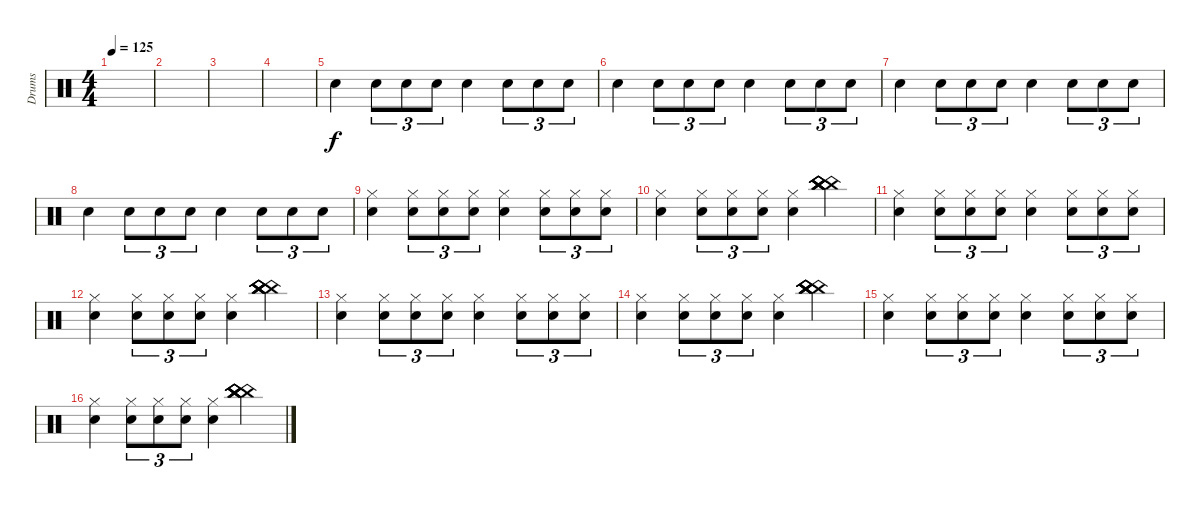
\track ("Drums" "Drums") {instrument percussion}
\staff {score}
\articulation defaults
\ts (4 4)
\tempo 125
\clef neutral
\ks c
|
|
|
|
"Electric Snare (hit)".4{volume 11} "Electric Snare (hit)".8{tu (3 2)} "Electric Snare (hit)".8{tu (3 2)} "Electric Snare (hit)".8{tu (3 2)} "Electric Snare (hit)".4 "Electric Snare (hit)".8{tu (3 2)} "Electric Snare (hit)".8{tu (3 2)} "Electric Snare (hit)".8{tu (3 2)} |
"Electric Snare (hit)".4 "Electric Snare (hit)".8{tu (3 2)} "Electric Snare (hit)".8{tu (3 2)} "Electric Snare (hit)".8{tu (3 2)} "Electric Snare (hit)".4 "Electric Snare (hit)".8{tu (3 2)} "Electric Snare (hit)".8{tu (3 2)} "Electric Snare (hit)".8{tu (3 2)} |
"Electric Snare (hit)".4 "Electric Snare (hit)".8{tu (3 2)} "Electric Snare (hit)".8{tu (3 2)} "Electric Snare (hit)".8{tu (3 2)} "Electric Snare (hit)".4 "Electric Snare (hit)".8{tu (3 2)} "Electric Snare (hit)".8{tu (3 2)} "Electric Snare (hit)".8{tu (3 2)} |
"Electric Snare (hit)".4 "Electric Snare (hit)".8{tu (3 2)} "Electric Snare (hit)".8{tu (3 2)} "Electric Snare (hit)".8{tu (3 2)} "Electric Snare (hit)".4 "Electric Snare (hit)".8{tu (3 2)} "Electric Snare (hit)".8{tu (3 2)} "Electric Snare (hit)".8{tu (3 2)} |
("Hi-Hat (closed)" "Electric Snare (hit)").4 ("Hi-Hat (closed)" "Electric Snare (hit)").8{tu (3 2)} ("Hi-Hat (closed)" "Electric Snare (hit)").8{tu (3 2)} ("Hi-Hat (closed)" "Electric Snare (hit)").8{tu (3 2)} ("Hi-Hat (closed)" "Electric Snare (hit)").4 ("Hi-Hat (closed)" "Electric Snare (hit)").8{tu (3 2)} ("Hi-Hat (closed)" "Electric Snare (hit)").8{tu (3 2)} ("Hi-Hat (closed)" "Electric Snare (hit)").8{tu (3 2)} |
("Hi-Hat (closed)" "Electric Snare (hit)").4 ("Hi-Hat (closed)" "Electric Snare (hit)").8{tu (3 2)} ("Hi-Hat (closed)" "Electric Snare (hit)").8{tu (3 2)} ("Hi-Hat (closed)" "Electric Snare (hit)").8{tu (3 2)} ("Hi-Hat (closed)" "Electric Snare (hit)").4 ("China (hit)" "China (hit)" "China (hit)" "China (hit)" "China (hit)" "China (hit)").4 |
("Hi-Hat (closed)" "Electric Snare (hit)").4 ("Hi-Hat (closed)" "Electric Snare (hit)").8{tu (3 2)} ("Hi-Hat (closed)" "Electric Snare (hit)").8{tu (3 2)} ("Hi-Hat (closed)" "Electric Snare (hit)").8{tu (3 2)} ("Hi-Hat (closed)" "Electric Snare (hit)").4 ("Hi-Hat (closed)" "Electric Snare (hit)").8{tu (3 2)} ("Hi-Hat (closed)" "Electric Snare (hit)").8{tu (3 2)} ("Hi-Hat (closed)" "Electric Snare (hit)").8{tu (3 2)} |
("Hi-Hat (closed)" "Electric Snare (hit)").4 ("Hi-Hat (closed)" "Electric Snare (hit)").8{tu (3 2)} ("Hi-Hat (closed)" "Electric Snare (hit)").8{tu (3 2)} ("Hi-Hat (closed)" "Electric Snare (hit)").8{tu (3 2)} ("Hi-Hat (closed)" "Electric Snare (hit)").4 ("China (hit)" "China (hit)" "China (hit)" "China (hit)" "China (hit)" "China (hit)").4 |
("Hi-Hat (closed)" "Electric Snare (hit)").4 ("Hi-Hat (closed)" "Electric Snare (hit)").8{tu (3 2)} ("Hi-Hat (closed)" "Electric Snare (hit)").8{tu (3 2)} ("Hi-Hat (closed)" "Electric Snare (hit)").8{tu (3 2)} ("Hi-Hat (closed)" "Electric Snare (hit)").4 ("Hi-Hat (closed)" "Electric Snare (hit)").8{tu (3 2)} ("Hi-Hat (closed)" "Electric Snare (hit)").8{tu (3 2)} ("Hi-Hat (closed)" "Electric Snare (hit)").8{tu (3 2)} |
("Hi-Hat (closed)" "Electric Snare (hit)").4 ("Hi-Hat (closed)" "Electric Snare (hit)").8{tu (3 2)} ("Hi-Hat (closed)" "Electric Snare (hit)").8{tu (3 2)} ("Hi-Hat (closed)" "Electric Snare (hit)").8{tu (3 2)} ("Hi-Hat (closed)" "Electric Snare (hit)").4 ("China (hit)" "China (hit)" "China (hit)" "China (hit)" "China (hit)" "China (hit)").4 |
("Hi-Hat (closed)" "Electric Snare (hit)").4 ("Hi-Hat (closed)" "Electric Snare (hit)").8{tu (3 2)} ("Hi-Hat (closed)" "Electric Snare (hit)").8{tu (3 2)} ("Hi-Hat (closed)" "Electric Snare (hit)").8{tu (3 2)} ("Hi-Hat (closed)" "Electric Snare (hit)").4 ("Hi-Hat (closed)" "Electric Snare (hit)").8{tu (3 2)} ("Hi-Hat (closed)" "Electric Snare (hit)").8{tu (3 2)} ("Hi-Hat (closed)" "Electric Snare (hit)").8{tu (3 2)} |
("Hi-Hat (closed)" "Electric Snare (hit)").4 ("Hi-Hat (closed)" "Electric Snare (hit)").8{tu (3 2)} ("Hi-Hat (closed)" "Electric Snare (hit)").8{tu (3 2)} ("Hi-Hat (closed)" "Electric Snare (hit)").8{tu (3 2)} ("Hi-Hat (closed)" "Electric Snare (hit)").4 ("China (hit)" "China (hit)" "China (hit)" "China (hit)" "China (hit)" "China (hit)").4
